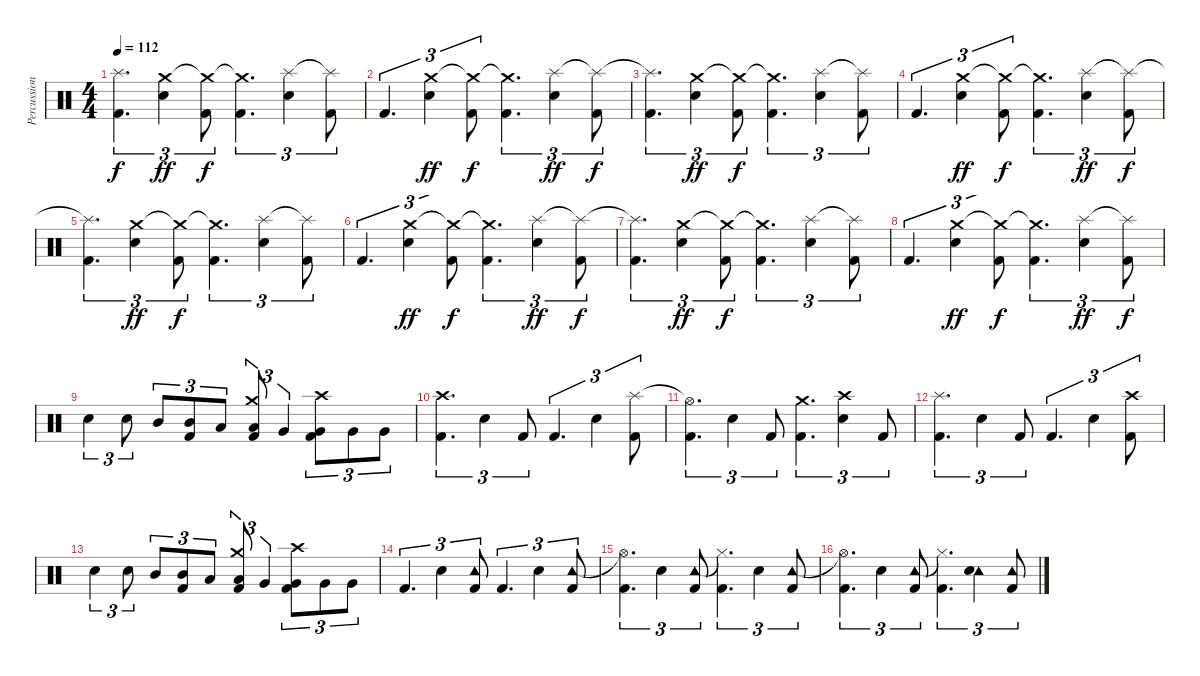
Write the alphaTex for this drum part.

\track ("Percussioni" "Percussion") {instrument percussion}
\staff {score}
\articulation defaults
\ts (4 4)
\tempo 112
\clef neutral
\ks c
("Splash (hit)"{t} "Kick (hit) 2").4{d tu (3 2) dy f} ("Crash medium (hit)" "Snare (hit) 2").4{tu (3 2) dy ff} ("Crash medium (hit)"{t} "Kick (hit) 2").8{tu (3 2) dy f} ("Crash medium (hit)"{t} "Kick (hit) 2").4{d tu (3 2)} ("Splash (hit)" "Snare (hit) 2").4{tu (3 2)} ("Splash (hit)"{t} "Kick (hit) 2").8{tu (3 2)} |
"Kick (hit) 2".4{d tu (3 2)} ("Crash medium (hit)" "Snare (hit) 2").4{tu (3 2) dy ff} ("Crash medium (hit)"{t} "Kick (hit) 2").8{tu (3 2) dy f} ("Crash medium (hit)"{t} "Kick (hit) 2").4{d tu (3 2)} ("Splash (hit)" "Snare (hit) 2").4{tu (3 2) dy ff} ("Splash (hit)"{t} "Kick (hit) 2").8{tu (3 2) dy f} |
("Splash (hit)"{t} "Kick (hit) 2").4{d tu (3 2)} ("Crash medium (hit)" "Snare (hit) 2").4{tu (3 2) dy ff} ("Crash medium (hit)"{t} "Kick (hit) 2").8{tu (3 2) dy f} ("Crash medium (hit)"{t} "Kick (hit) 2").4{d tu (3 2)} ("Splash (hit)" "Snare (hit) 2").4{tu (3 2)} ("Splash (hit)"{t} "Kick (hit) 2").8{tu (3 2)} |
"Kick (hit) 2".4{d tu (3 2)} ("Crash medium (hit)" "Snare (hit) 2").4{tu (3 2) dy ff} ("Crash medium (hit)"{t} "Kick (hit) 2").8{tu (3 2) dy f} ("Crash medium (hit)"{t} "Kick (hit) 2").4{d tu (3 2)} ("Splash (hit)" "Snare (hit) 2").4{tu (3 2) dy ff} ("Splash (hit)"{t} "Kick (hit) 2").8{tu (3 2) dy f} |
("Splash (hit)"{t} "Kick (hit) 2").4{d tu (3 2)} ("Crash medium (hit)" "Snare (hit) 2").4{tu (3 2) dy ff} ("Crash medium (hit)"{t} "Kick (hit) 2").8{tu (3 2) dy f} ("Crash medium (hit)"{t} "Kick (hit) 2").4{d tu (3 2)} ("Splash (hit)" "Snare (hit) 2").4{tu (3 2)} ("Splash (hit)"{t} "Kick (hit) 2").8{tu (3 2)} |
"Kick (hit) 2".4{d tu (3 2)} ("Crash medium (hit)" "Snare (hit) 2").4{tu (3 2) dy ff} ("Crash medium (hit)"{t} "Kick (hit) 2").8{tu (3 2) dy f} ("Crash medium (hit)"{t} "Kick (hit) 2").4{d tu (3 2)} ("Splash (hit)" "Snare (hit) 2").4{tu (3 2) dy ff} ("Splash (hit)"{t} "Kick (hit) 2").8{tu (3 2) dy f} |
("Splash (hit)"{t} "Kick (hit) 2").4{d tu (3 2)} ("Crash medium (hit)" "Snare (hit) 2").4{tu (3 2) dy ff} ("Crash medium (hit)"{t} "Kick (hit) 2").8{tu (3 2) dy f} ("Crash medium (hit)"{t} "Kick (hit) 2").4{d tu (3 2)} ("Splash (hit)" "Snare (hit) 2").4{tu (3 2)} ("Splash (hit)"{t} "Kick (hit) 2").8{tu (3 2)} |
"Kick (hit) 2".4{d tu (3 2)} ("Crash medium (hit)" "Snare (hit) 2").4{tu (3 2) dy ff} ("Crash medium (hit)"{t} "Kick (hit) 2").8{tu (3 2) dy f} ("Crash medium (hit)"{t} "Kick (hit) 2").4{d tu (3 2)} ("Splash (hit)" "Snare (hit) 2").4{tu (3 2) dy ff} ("Splash (hit)"{t} "Kick (hit) 2").8{tu (3 2) dy f} |
"Snare (hit) 2".4{tu (3 2)} "Snare (hit) 2".8{tu (3 2)} "Mid Tom (hit)".8{tu (3 2)} ("Mid Tom (hit)" "Kick (hit) 2").8{tu (3 2)} "Low Tom (hit)".8{tu (3 2)} ("Crash medium (hit)" "Low Tom (hit)" "Kick (hit) 2").8{tu (3 2)} "Very Low Tom (hit)".4{tu (3 2)} ("Crash high (hit)" "Very Low Tom (hit)" "Kick (hit) 2").8{tu (3 2)} "Very Low Tom (hit)".8{tu (3 2)} "Very Low Tom (hit)".8{tu (3 2)} |
("Crash high (hit)" "Kick (hit) 2").4{d tu (3 2)} "Snare (hit) 2".4{tu (3 2)} "Kick (hit) 2".8{tu (3 2)} "Kick (hit) 2".4{d tu (3 2)} "Snare (hit) 2".4{tu (3 2)} ("Splash (hit)" "Kick (hit) 2").8{tu (3 2)} |
("Hi-Hat (open)"{t} "Kick (hit) 2").4{d tu (3 2)} "Snare (hit) 2".4{tu (3 2)} "Kick (hit) 2".8{tu (3 2)} ("Crash medium (hit)" "Kick (hit) 2").4{d tu (3 2)} ("Crash high (hit)" "Snare (hit) 2").4{tu (3 2)} "Kick (hit) 2".8{tu (3 2)} |
("Splash (hit)" "Kick (hit) 2").4{d tu (3 2)} "Snare (hit) 2".4{tu (3 2)} "Kick (hit) 2".8{tu (3 2)} "Kick (hit) 2".4{d tu (3 2)} "Snare (hit) 2".4{tu (3 2)} ("Crash high (hit)" "Kick (hit) 2").8{tu (3 2)} |
"Snare (hit) 2".4{tu (3 2)} "Snare (hit) 2".8{tu (3 2)} "Mid Tom (hit)".8{tu (3 2)} ("Mid Tom (hit)" "Kick (hit) 2").8{tu (3 2)} "Low Tom (hit)".8{tu (3 2)} ("Crash medium (hit)" "Low Tom (hit)" "Kick (hit) 2").8{tu (3 2)} "Very Low Tom (hit)".4{tu (3 2)} ("Crash high (hit)" "Very Low Tom (hit)" "Kick (hit) 2").8{tu (3 2)} "Very Low Tom (hit)".8{tu (3 2)} "Very Low Tom (hit)".8{tu (3 2)} |
"Kick (hit) 2".4{d tu (3 2)} "Snare (hit) 2".4{tu (3 2)} ("Tambourine (hit)" "Kick (hit) 2").8{tu (3 2)} "Kick (hit) 2".4{d tu (3 2)} "Snare (hit) 2".4{tu (3 2)} ("Tambourine (hit)" "Kick (hit) 2").8{tu (3 2)} |
("Hi-Hat (open)"{t} "Kick (hit) 2").4{d tu (3 2)} "Snare (hit) 2".4{tu (3 2)} ("Tambourine (hit)" "Kick (hit) 2").8{tu (3 2)} ("Hi-Hat (closed)"{t} "Kick (hit) 2").4{d tu (3 2)} "Snare (hit) 2".4{tu (3 2)} ("Tambourine (hit)" "Kick (hit) 2").8{tu (3 2)} |
("Hi-Hat (open)"{t} "Kick (hit) 2").4{d tu (3 2)} "Snare (hit) 2".4{tu (3 2)} ("Tambourine (hit)" "Kick (hit) 2").8{tu (3 2)} ("Hi-Hat (closed)"{t} "Kick (hit) 2").4{d tu (3 2)} ("Tambourine (hit)" "Snare (hit) 2").4{tu (3 2)} ("Tambourine (hit)" "Kick (hit) 2").8{tu (3 2)}
